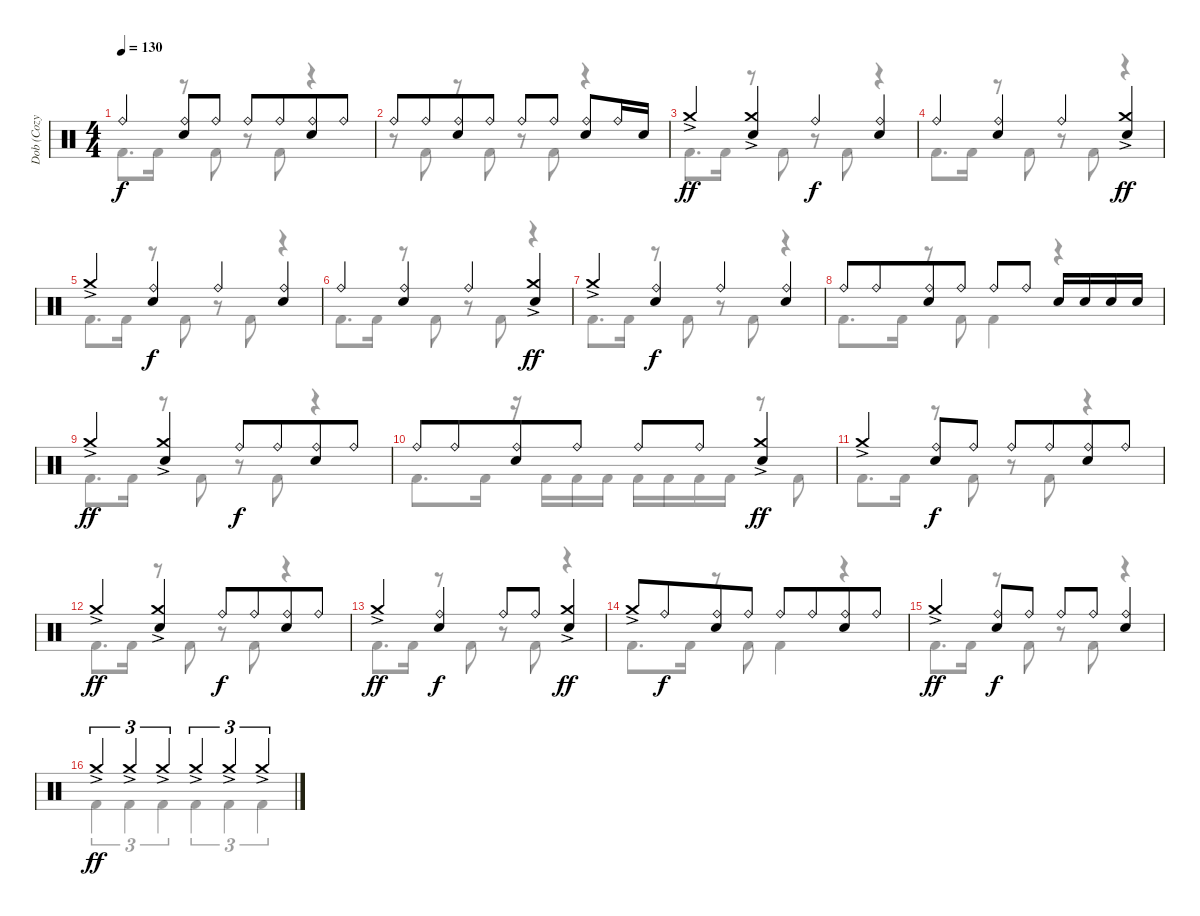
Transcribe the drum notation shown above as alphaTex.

\track ("Dob (Cozy Powell)" "Dob (Cozy ") {instrument percussion}
\staff {score}
\articulation defaults
\voice
\ts (4 4)
\tempo 130
\clef neutral
\ks c "Ride (bell)".4{dy f}
("Ride (bell)" "Electric Snare (hit)").8 "Ride (bell)".8 "Ride (bell)".8 "Ride (bell)".8{beam merge} ("Ride (bell)" "Electric Snare (hit)").8 "Ride (bell)".8 |
"Ride (bell)".8 "Ride (bell)".8{beam merge} ("Ride (bell)" "Electric Snare (hit)").8 "Ride (bell)".8 "Ride (bell)".8 "Ride (bell)".8 ("Ride (bell)" "Electric Snare (hit)").8 "Ride (bell)".16 "Electric Snare (hit)".16 |
"Crash medium (hit)"{ac}.4{dy ff} ("Crash medium (hit)"{ac} "Electric Snare (hit)").4 "Ride (bell)".4{dy f} ("Ride (bell)" "Electric Snare (hit)").4 |
"Ride (bell)".4 ("Ride (bell)" "Electric Snare (hit)").4 "Ride (bell)".4 ("Crash medium (hit)"{ac} "Electric Snare (hit)").4{dy ff} |
"Crash medium (hit)"{ac}.4 ("Ride (bell)" "Electric Snare (hit)").4{dy f} "Ride (bell)".4 ("Ride (bell)" "Electric Snare (hit)").4 |
"Ride (bell)".4 ("Ride (bell)" "Electric Snare (hit)").4 "Ride (bell)".4 ("Crash medium (hit)"{ac} "Electric Snare (hit)").4{dy ff} |
"Crash medium (hit)"{ac}.4 ("Ride (bell)" "Electric Snare (hit)").4{dy f} "Ride (bell)".4 ("Ride (bell)" "Electric Snare (hit)").4 |
"Ride (bell)".8 "Ride (bell)".8{beam merge} ("Ride (bell)" "Electric Snare (hit)").8 "Ride (bell)".8 "Ride (bell)".8 "Ride (bell)".8 "Electric Snare (hit)".16 "Electric Snare (hit)".16 "Electric Snare (hit)".16 "Electric Snare (hit)".16 |
"Crash medium (hit)"{ac}.4{dy ff} ("Crash medium (hit)"{ac} "Electric Snare (hit)").4 "Ride (bell)".8{dy f} "Ride (bell)".8{beam merge} ("Ride (bell)" "Electric Snare (hit)").8 "Ride (bell)".8 |
"Ride (bell)".8 "Ride (bell)".8{beam merge} ("Ride (bell)" "Electric Snare (hit)").8 "Ride (bell)".8 "Ride (bell)".8 "Ride (bell)".8 ("Crash medium (hit)"{ac} "Electric Snare (hit)").4{dy ff} |
"Crash medium (hit)"{ac}.4{beam merge} ("Ride (bell)" "Electric Snare (hit)").8{dy f} "Ride (bell)".8 "Ride (bell)".8 "Ride (bell)".8{beam merge} ("Ride (bell)" "Electric Snare (hit)").8 "Ride (bell)".8 |
"Crash medium (hit)"{ac}.4{dy ff} ("Crash medium (hit)"{ac} "Electric Snare (hit)").4 "Ride (bell)".8{dy f} "Ride (bell)".8{beam merge} ("Ride (bell)" "Electric Snare (hit)").8 "Ride (bell)".8 |
"Crash medium (hit)"{ac}.4{dy ff beam merge} ("Ride (bell)" "Electric Snare (hit)").4{dy f} "Ride (bell)".8 "Ride (bell)".8 ("Crash medium (hit)"{ac} "Electric Snare (hit)").4{dy ff} |
"Crash medium (hit)"{ac}.8 "Ride (bell)".8{dy f beam merge} ("Ride (bell)" "Electric Snare (hit)").8 "Ride (bell)".8 "Ride (bell)".8 "Ride (bell)".8{beam merge} ("Ride (bell)" "Electric Snare (hit)").8 "Ride (bell)".8 |
"Crash medium (hit)"{ac}.4{dy ff beam merge} ("Ride (bell)" "Electric Snare (hit)").8{dy f} "Ride (bell)".8 "Ride (bell)".8 "Ride (bell)".8{beam merge} ("Ride (bell)" "Electric Snare (hit)").4 |
"Crash medium (hit)"{ac}.4{tu (3 2) dy ff} "Crash medium (hit)"{ac}.4{tu (3 2)} "Crash medium (hit)"{ac}.4{tu (3 2)} "Crash medium (hit)"{ac}.4{tu (3 2)} "Crash medium (hit)"{ac}.4{tu (3 2)} "Crash medium (hit)"{ac}.4{tu (3 2)}
\voice
\clef neutral
\ottava regular
\simile none
\ks c "Kick (hit) 2".8{d dy f} "Kick (hit) 2".16
r.8 "Kick (hit) 2".8 r.8 "Kick (hit) 2".8 r.4 |
r.8 "Kick (hit) 2".8 r.8 "Kick (hit) 2".8 r.8 "Kick (hit) 2".8 r.4 |
"Kick (hit) 2".8{d} "Kick (hit) 2".16 r.8 "Kick (hit) 2".8 r.8 "Kick (hit) 2".8 r.4 |
"Kick (hit) 2".8{d} "Kick (hit) 2".16 r.8 "Kick (hit) 2".8 r.8 "Kick (hit) 2".8 r.4 |
"Kick (hit) 2".8{d} "Kick (hit) 2".16 r.8 "Kick (hit) 2".8 r.8 "Kick (hit) 2".8 r.4 |
"Kick (hit) 2".8{d} "Kick (hit) 2".16 r.8 "Kick (hit) 2".8 r.8 "Kick (hit) 2".8 r.4 |
"Kick (hit) 2".8{d} "Kick (hit) 2".16 r.8 "Kick (hit) 2".8 r.8 "Kick (hit) 2".8 r.4 |
"Kick (hit) 2".8{d} "Kick (hit) 2".16 r.8 "Kick (hit) 2".8 "Kick (hit) 2".4 r.4 |
"Kick (hit) 2".8{d} "Kick (hit) 2".16 r.8 "Kick (hit) 2".8 r.8 "Kick (hit) 2".8 r.4 |
"Kick (hit) 2".8{d} "Kick (hit) 2".16 r.16 "Kick (hit) 2".16 "Kick (hit) 2".16 "Kick (hit) 2".16 "Kick (hit) 2".16 "Kick (hit) 2".16 "Kick (hit) 2".16 "Kick (hit) 2".16 r.8 "Kick (hit) 2".8 |
"Kick (hit) 2".8{d} "Kick (hit) 2".16 r.8 "Kick (hit) 2".8 r.8 "Kick (hit) 2".8 r.4 |
"Kick (hit) 2".8{d} "Kick (hit) 2".16 r.8 "Kick (hit) 2".8 r.8 "Kick (hit) 2".8 r.4 |
"Kick (hit) 2".8{d} "Kick (hit) 2".16 r.8 "Kick (hit) 2".8 r.8 "Kick (hit) 2".8 r.4 |
"Kick (hit) 2".8{d} "Kick (hit) 2".16 r.8 "Kick (hit) 2".8 "Kick (hit) 2".4 r.4 |
"Kick (hit) 2".8{d} "Kick (hit) 2".16 r.8 "Kick (hit) 2".8 r.8 "Kick (hit) 2".8 r.4 |
"Kick (hit) 2".4{tu (3 2)} "Kick (hit) 2".4{tu (3 2)} "Kick (hit) 2".4{tu (3 2)} "Kick (hit) 2".4{tu (3 2)} "Kick (hit) 2".4{tu (3 2)} "Kick (hit) 2".4{tu (3 2)}
